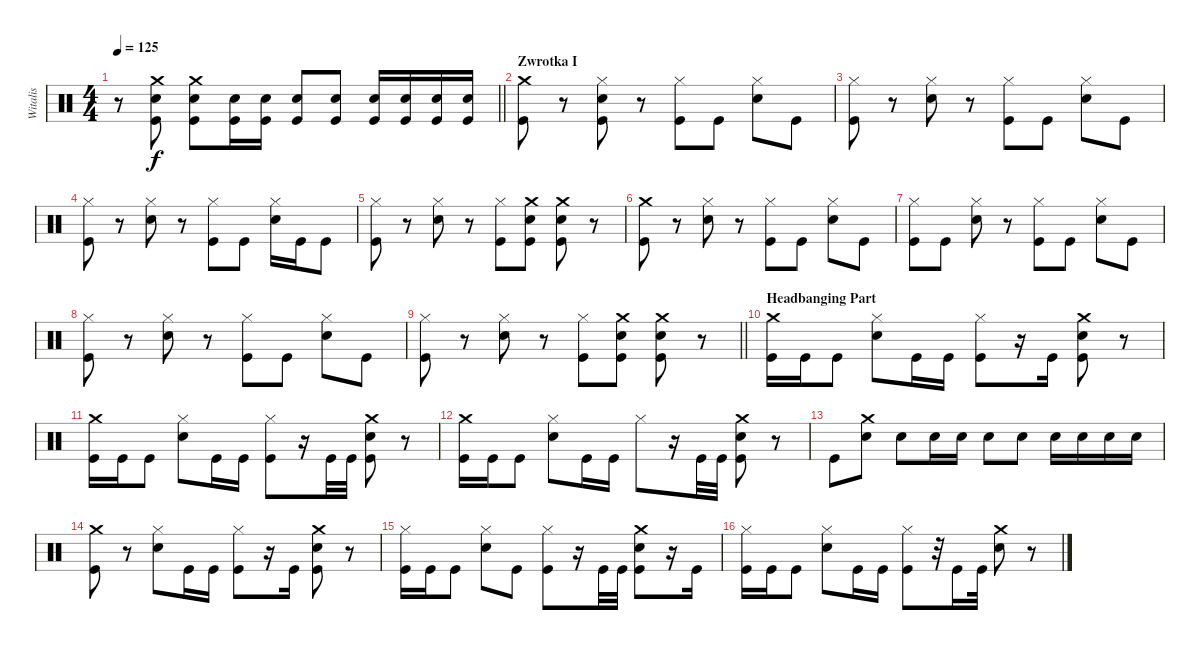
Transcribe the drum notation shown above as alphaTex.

\track ("Witalis" "Witalis") {instrument percussion}
\staff {score}
\articulation defaults
\ts (4 4)
\tempo 125
\clef neutral
\barLineRight lightlight
\ks c
r.8{dy f} ("Kick (hit)" "Snare (hit) 2" "Crash medium (hit)").8 ("Kick (hit)" "Snare (hit) 2" "Crash medium (hit)").8 ("Kick (hit)" "Snare (hit) 2").16 ("Kick (hit)" "Snare (hit) 2").16 ("Kick (hit)" "Snare (hit) 2").8 ("Kick (hit)" "Snare (hit) 2").8 ("Kick (hit)" "Snare (hit) 2").16 ("Kick (hit)" "Snare (hit) 2").16 ("Kick (hit)" "Snare (hit) 2").16 ("Kick (hit)" "Snare (hit) 2").16 |
\section ("" "Zwrotka I")
("Kick (hit)" "Crash medium (hit)").8 r.8 ("Hi-Hat (closed)" "Kick (hit)" "Snare (hit) 2").8 r.8 ("Hi-Hat (closed)" "Kick (hit)").8 "Kick (hit)".8 ("Hi-Hat (closed)" "Snare (hit) 2").8 "Kick (hit)".8 |
("Hi-Hat (closed)" "Kick (hit)").8 r.8 ("Hi-Hat (closed)" "Snare (hit) 2").8 r.8 ("Hi-Hat (closed)" "Kick (hit)").8 "Kick (hit)".8 ("Hi-Hat (closed)" "Snare (hit) 2").8 "Kick (hit)".8 |
("Hi-Hat (closed)" "Kick (hit)").8 r.8 ("Hi-Hat (closed)" "Snare (hit) 2").8 r.8 ("Hi-Hat (closed)" "Kick (hit)").8 "Kick (hit)".8 ("Hi-Hat (closed)" "Snare (hit) 2").16 "Kick (hit)".16 "Kick (hit)".8 |
("Hi-Hat (closed)" "Kick (hit)").8 r.8 ("Hi-Hat (closed)" "Snare (hit) 2").8 r.8 ("Hi-Hat (closed)" "Kick (hit)").8 ("Kick (hit)" "Snare (hit) 2" "Crash medium (hit)").8 ("Kick (hit)" "Snare (hit) 2" "Crash medium (hit)").8 r.8 |
("Kick (hit)" "Crash medium (hit)").8 r.8 ("Hi-Hat (closed)" "Snare (hit) 2").8 r.8 ("Hi-Hat (closed)" "Kick (hit)").8 "Kick (hit)".8 ("Hi-Hat (closed)" "Snare (hit) 2").8 "Kick (hit)".8 |
("Hi-Hat (closed)" "Kick (hit)").8 "Kick (hit)".8 ("Hi-Hat (closed)" "Snare (hit) 2").8 r.8 ("Hi-Hat (closed)" "Kick (hit)").8 "Kick (hit)".8 ("Hi-Hat (closed)" "Snare (hit) 2").8 "Kick (hit)".8 |
("Hi-Hat (closed)" "Kick (hit)").8 r.8 ("Hi-Hat (closed)" "Snare (hit) 2").8 r.8 ("Hi-Hat (closed)" "Kick (hit)").8 "Kick (hit)".8 ("Hi-Hat (closed)" "Snare (hit) 2").8 "Kick (hit)".8 |
\barLineRight lightlight
("Hi-Hat (closed)" "Kick (hit)").8 r.8 ("Hi-Hat (closed)" "Snare (hit) 2").8 r.8 ("Hi-Hat (closed)" "Kick (hit)").8 ("Kick (hit)" "Snare (hit) 2" "Crash medium (hit)").8 ("Kick (hit)" "Snare (hit) 2" "Crash medium (hit)").8 r.8 |
\section ("" "Headbanging Part")
("Kick (hit)" "Crash medium (hit)").16 "Kick (hit)".16 "Kick (hit)".8 ("Hi-Hat (closed)" "Snare (hit) 2").8 "Kick (hit)".16 "Kick (hit)".16 ("Hi-Hat (closed)" "Kick (hit)").8 r.16 "Kick (hit)".16 ("Kick (hit)" "Snare (hit) 2" "Crash medium (hit)").8 r.8 |
("Kick (hit)" "Crash medium (hit)").16 "Kick (hit)".16 "Kick (hit)".8 ("Hi-Hat (closed)" "Snare (hit) 2").8 "Kick (hit)".16 "Kick (hit)".16 ("Hi-Hat (closed)" "Kick (hit)").8 r.16 "Kick (hit)".32 "Kick (hit)".32 ("Kick (hit)" "Snare (hit) 2" "Crash medium (hit)").8 r.8 |
("Kick (hit)" "Crash medium (hit)").16 "Kick (hit)".16 "Kick (hit)".8 ("Hi-Hat (closed)" "Snare (hit) 2").8 "Kick (hit)".16 "Kick (hit)".16 "Hi-Hat (closed)".8 r.16 "Kick (hit)".32 "Kick (hit)".32 ("Kick (hit)" "Snare (hit) 2" "Crash medium (hit)").8 r.8 |
"Kick (hit)".8 ("Snare (hit) 2" "Crash medium (hit)").8 "Snare (hit) 2".8 "Snare (hit) 2".16 "Snare (hit) 2".16 "Snare (hit) 2".8 "Snare (hit) 2".8 "Snare (hit) 2".16 "Snare (hit) 2".16 "Snare (hit) 2".16 "Snare (hit) 2".16 |
("Kick (hit)" "Crash medium (hit)").8 r.8 ("Hi-Hat (closed)" "Snare (hit) 2").8 "Kick (hit)".16 "Kick (hit)".16 ("Hi-Hat (closed)" "Kick (hit)").8 r.16 "Kick (hit)".16 ("Kick (hit)" "Snare (hit) 2" "Crash medium (hit)").8 r.8 |
("Hi-Hat (closed)" "Kick (hit)").16 "Kick (hit)".16 "Kick (hit)".8 ("Hi-Hat (closed)" "Snare (hit) 2").8 "Kick (hit)".8 ("Hi-Hat (closed)" "Kick (hit)").8 r.16 "Kick (hit)".32 "Kick (hit)".32 ("Kick (hit)" "Snare (hit) 2" "Crash medium (hit)").8 r.16 "Kick (hit)".16 |
("Hi-Hat (closed)" "Kick (hit)").16 "Kick (hit)".16 "Kick (hit)".8 ("Hi-Hat (closed)" "Snare (hit) 2").8 "Kick (hit)".16 "Kick (hit)".16 ("Hi-Hat (closed)" "Kick (hit)").8 r.32 "Kick (hit)".16 "Kick (hit)".32 ("Snare (hit) 2" "Crash medium (hit)").8 r.8
